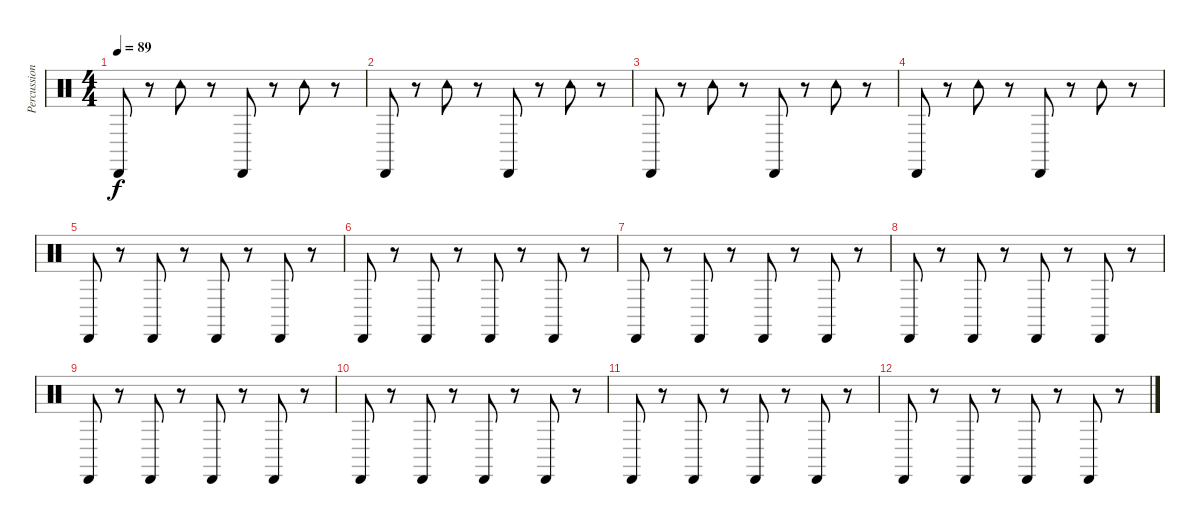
\track ("Percussion" "Percussion") {instrument percussion}
\staff {score}
\articulation defaults
\ts (4 4)
\tempo 89
\clef neutral
\ks c "Cabasa (hit)".8{dy f}
r.8 "Tambourine (hit)".8 r.8 "Cabasa (hit)".8 r.8 "Tambourine (hit)".8 r.8 |
"Cabasa (hit)".8 r.8 "Tambourine (hit)".8 r.8 "Cabasa (hit)".8 r.8 "Tambourine (hit)".8 r.8 |
"Cabasa (hit)".8 r.8 "Tambourine (hit)".8 r.8 "Cabasa (hit)".8 r.8 "Tambourine (hit)".8 r.8 |
"Cabasa (hit)".8 r.8 "Tambourine (hit)".8 r.8 "Cabasa (hit)".8 r.8 "Tambourine (hit)".8 r.8 |
"Cabasa (hit)".8 r.8 "Cabasa (hit)".8 r.8 "Cabasa (hit)".8 r.8 "Cabasa (hit)".8 r.8 |
"Cabasa (hit)".8 r.8 "Cabasa (hit)".8 r.8 "Cabasa (hit)".8 r.8 "Cabasa (hit)".8 r.8 |
"Cabasa (hit)".8 r.8 "Cabasa (hit)".8 r.8 "Cabasa (hit)".8 r.8 "Cabasa (hit)".8 r.8 |
"Cabasa (hit)".8 r.8 "Cabasa (hit)".8 r.8 "Cabasa (hit)".8 r.8 "Cabasa (hit)".8 r.8 |
"Cabasa (hit)".8 r.8 "Cabasa (hit)".8 r.8 "Cabasa (hit)".8 r.8 "Cabasa (hit)".8 r.8 |
"Cabasa (hit)".8 r.8 "Cabasa (hit)".8 r.8 "Cabasa (hit)".8 r.8 "Cabasa (hit)".8 r.8 |
"Cabasa (hit)".8 r.8 "Cabasa (hit)".8 r.8 "Cabasa (hit)".8 r.8 "Cabasa (hit)".8 r.8 |
"Cabasa (hit)".8 r.8 "Cabasa (hit)".8 r.8 "Cabasa (hit)".8 r.8 "Cabasa (hit)".8 r.8
